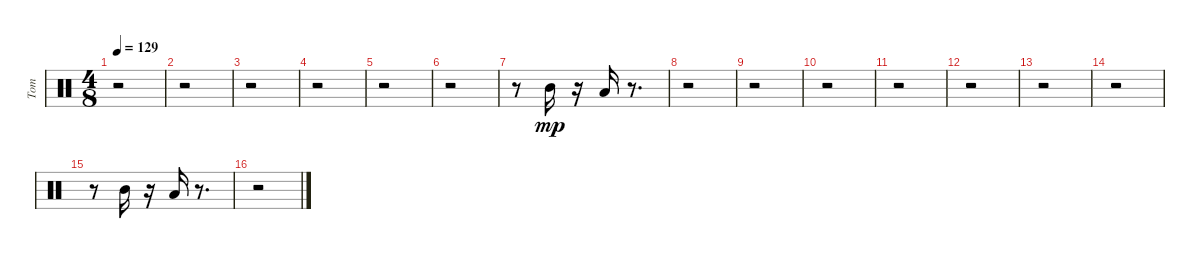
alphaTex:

\track ("Tom" "Tom") {instrument percussion}
\staff {score}
\articulation defaults
\ts (4 8)
\tempo 129
\clef neutral
\ks c
r.2{dy f} |
r.2 |
r.2 |
r.2 |
r.2 |
r.2 |
r.8 "Mid Tom (hit)".16{dy mp} r.16 "Low Tom (hit)".16 r.8{d} |
r.2 |
r.2 |
r.2 |
r.2 |
r.2 |
r.2 |
r.2 |
r.8 "Mid Tom (hit)".16 r.16 "Low Tom (hit)".16 r.8{d} |
r.2
